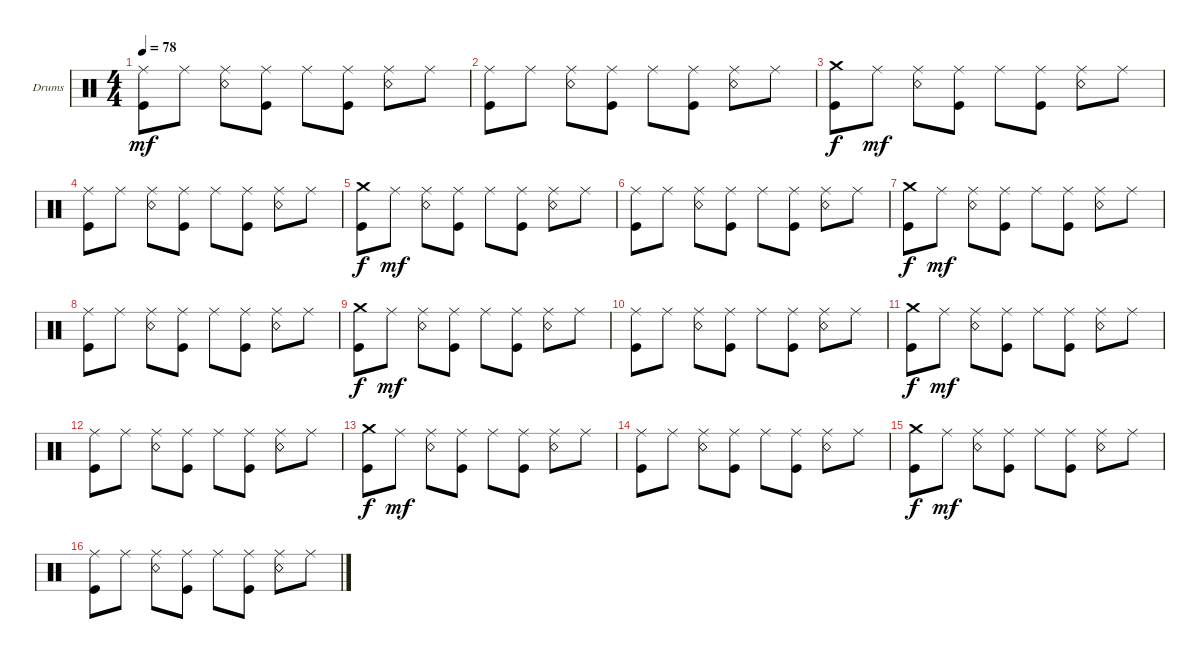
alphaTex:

\defaultSystemsLayout 4
\bracketExtendMode groupsimilarinstruments
\firstSystemTrackNameOrientation horizontal
\otherSystemsTrackNameOrientation horizontal
\track ("Drumkit" "Drums") {instrument percussion}
\staff {score}
\articulation defaults
\ts (4 4)
\tempo 78
\clef neutral
\ks c
("Kick (hit)" "Ride (middle)").8{dy mf} "Ride (middle)".8 ("Snare (rim shot)" "Ride (middle)").8 ("Kick (hit)" "Ride (middle)").8 "Ride (middle)".8 ("Kick (hit)" "Ride (middle)").8 ("Snare (rim shot)" "Ride (middle)").8 "Ride (middle)".8 |
("Kick (hit)" "Ride (middle)").8 "Ride (middle)".8 ("Snare (rim shot)" "Ride (middle)").8 ("Kick (hit)" "Ride (middle)").8 "Ride (middle)".8 ("Kick (hit)" "Ride (middle)").8 ("Snare (rim shot)" "Ride (middle)").8 "Ride (middle)".8 |
\scale
0.333333 ("Kick (hit)" "Crash medium (hit)").8{dy f} "Ride (middle)".8{dy mf} ("Snare (rim shot)" "Ride (middle)").8 ("Kick (hit)" "Ride (middle)").8 "Ride (middle)".8 ("Kick (hit)" "Ride (middle)").8 ("Snare (rim shot)" "Ride (middle)").8 "Ride (middle)".8 |
\scale
0.333333 ("Kick (hit)" "Ride (middle)").8 "Ride (middle)".8 ("Snare (rim shot)" "Ride (middle)").8 ("Kick (hit)" "Ride (middle)").8 "Ride (middle)".8 ("Kick (hit)" "Ride (middle)").8 ("Snare (rim shot)" "Ride (middle)").8 "Ride (middle)".8 |
\scale
0.333333 ("Kick (hit)" "Crash medium (hit)").8{dy f} "Ride (middle)".8{dy mf} ("Snare (rim shot)" "Ride (middle)").8 ("Kick (hit)" "Ride (middle)").8 "Ride (middle)".8 ("Kick (hit)" "Ride (middle)").8 ("Snare (rim shot)" "Ride (middle)").8 "Ride (middle)".8 |
\scale
0.333333 ("Kick (hit)" "Ride (middle)").8 "Ride (middle)".8 ("Snare (rim shot)" "Ride (middle)").8 ("Kick (hit)" "Ride (middle)").8 "Ride (middle)".8 ("Kick (hit)" "Ride (middle)").8 ("Snare (rim shot)" "Ride (middle)").8 "Ride (middle)".8 |
\scale
0.333333 ("Kick (hit)" "Crash medium (hit)").8{dy f} "Ride (middle)".8{dy mf} ("Snare (rim shot)" "Ride (middle)").8 ("Kick (hit)" "Ride (middle)").8 "Ride (middle)".8 ("Kick (hit)" "Ride (middle)").8 ("Snare (rim shot)" "Ride (middle)").8 "Ride (middle)".8 |
\scale
0.333333 ("Kick (hit)" "Ride (middle)").8 "Ride (middle)".8 ("Snare (rim shot)" "Ride (middle)").8 ("Kick (hit)" "Ride (middle)").8 "Ride (middle)".8 ("Kick (hit)" "Ride (middle)").8 ("Snare (rim shot)" "Ride (middle)").8 "Ride (middle)".8 |
\scale
0.333333 ("Kick (hit)" "Crash medium (hit)").8{dy f} "Ride (middle)".8{dy mf} ("Snare (rim shot)" "Ride (middle)").8 ("Kick (hit)" "Ride (middle)").8 "Ride (middle)".8 ("Kick (hit)" "Ride (middle)").8 ("Snare (rim shot)" "Ride (middle)").8 "Ride (middle)".8 |
\scale
0.333333 ("Kick (hit)" "Ride (middle)").8 "Ride (middle)".8 ("Snare (rim shot)" "Ride (middle)").8 ("Kick (hit)" "Ride (middle)").8 "Ride (middle)".8 ("Kick (hit)" "Ride (middle)").8 ("Snare (rim shot)" "Ride (middle)").8 "Ride (middle)".8 |
\scale
0.333333 ("Kick (hit)" "Crash medium (hit)").8{dy f} "Ride (middle)".8{dy mf} ("Snare (rim shot)" "Ride (middle)").8 ("Kick (hit)" "Ride (middle)").8 "Ride (middle)".8 ("Kick (hit)" "Ride (middle)").8 ("Snare (rim shot)" "Ride (middle)").8 "Ride (middle)".8 |
\scale
0.333333 ("Kick (hit)" "Ride (middle)").8 "Ride (middle)".8 ("Snare (rim shot)" "Ride (middle)").8 ("Kick (hit)" "Ride (middle)").8 "Ride (middle)".8 ("Kick (hit)" "Ride (middle)").8 ("Snare (rim shot)" "Ride (middle)").8 "Ride (middle)".8 |
\scale
0.333333 ("Kick (hit)" "Crash medium (hit)").8{dy f} "Ride (middle)".8{dy mf} ("Snare (rim shot)" "Ride (middle)").8 ("Kick (hit)" "Ride (middle)").8 "Ride (middle)".8 ("Kick (hit)" "Ride (middle)").8 ("Snare (rim shot)" "Ride (middle)").8 "Ride (middle)".8 |
\scale
0.333333 ("Kick (hit)" "Ride (middle)").8 "Ride (middle)".8 ("Snare (rim shot)" "Ride (middle)").8 ("Kick (hit)" "Ride (middle)").8 "Ride (middle)".8 ("Kick (hit)" "Ride (middle)").8 ("Snare (rim shot)" "Ride (middle)").8 "Ride (middle)".8 |
\scale
0.333333 ("Kick (hit)" "Crash medium (hit)").8{dy f} "Ride (middle)".8{dy mf} ("Snare (rim shot)" "Ride (middle)").8 ("Kick (hit)" "Ride (middle)").8 "Ride (middle)".8 ("Kick (hit)" "Ride (middle)").8 ("Snare (rim shot)" "Ride (middle)").8 "Ride (middle)".8 |
\scale
0.333333 ("Kick (hit)" "Ride (middle)").8 "Ride (middle)".8 ("Snare (rim shot)" "Ride (middle)").8 ("Kick (hit)" "Ride (middle)").8 "Ride (middle)".8 ("Kick (hit)" "Ride (middle)").8 ("Snare (rim shot)" "Ride (middle)").8 "Ride (middle)".8
